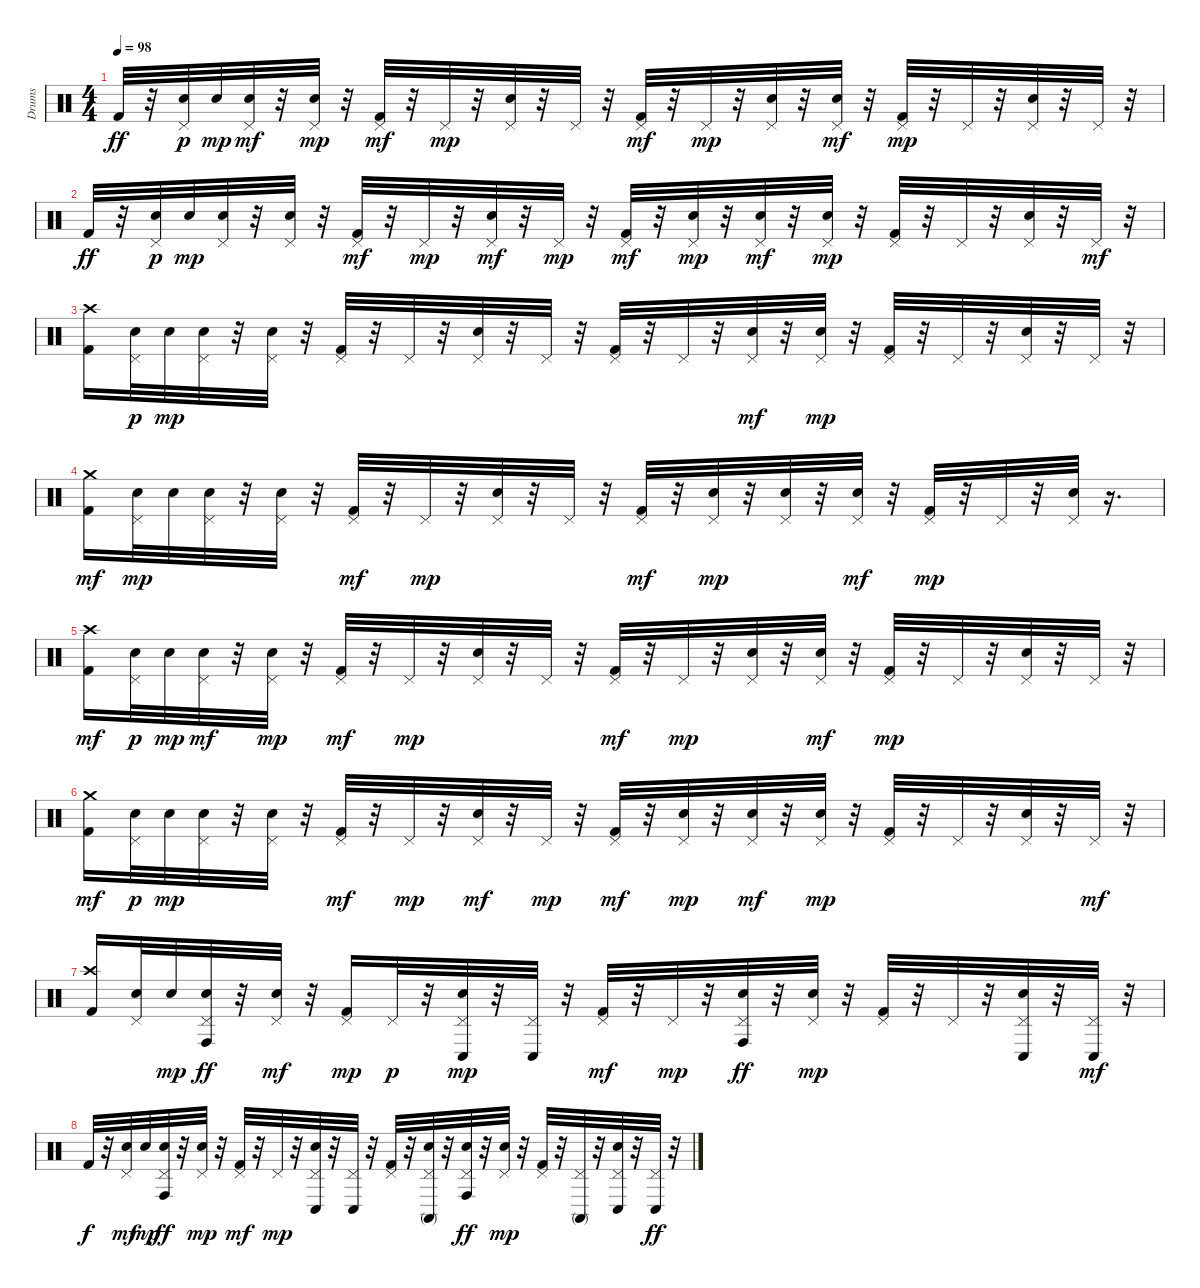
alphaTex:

\track ("Drums" "Drums") {instrument percussion}
\staff {score}
\articulation defaults
\ts (4 4)
\tempo 98
\clef neutral
\ks c "Kick (hit) 2".32{dy ff}
r.32 ("Electric Snare (hit)" "Pedal Hi-Hat (hit)").32{dy p} "Electric Snare (hit)".32{dy mp} ("Electric Snare (hit)" "Pedal Hi-Hat (hit)").32{dy mf} r.32 ("Electric Snare (hit)" "Pedal Hi-Hat (hit)").32{dy mp} r.32 ("Kick (hit) 2" "Pedal Hi-Hat (hit)").32{dy mf} r.32 "Pedal Hi-Hat (hit)".32{dy mp} r.32 ("Electric Snare (hit)" "Pedal Hi-Hat (hit)").32 r.32 "Pedal Hi-Hat (hit)".32 r.32 ("Kick (hit) 2" "Pedal Hi-Hat (hit)").32{dy mf} r.32 "Pedal Hi-Hat (hit)".32{dy mp} r.32 ("Electric Snare (hit)" "Pedal Hi-Hat (hit)").32 r.32 ("Electric Snare (hit)" "Pedal Hi-Hat (hit)").32{dy mf} r.32 ("Kick (hit) 2" "Pedal Hi-Hat (hit)").32{dy mp} r.32 "Pedal Hi-Hat (hit)".32 r.32 ("Electric Snare (hit)" "Pedal Hi-Hat (hit)").32 r.32 "Pedal Hi-Hat (hit)".32 r.32 |
"Kick (hit) 2".32{dy ff} r.32 ("Electric Snare (hit)" "Pedal Hi-Hat (hit)").32{dy p} "Electric Snare (hit)".32{dy mp} ("Electric Snare (hit)" "Pedal Hi-Hat (hit)").32 r.32 ("Electric Snare (hit)" "Pedal Hi-Hat (hit)").32 r.32 ("Kick (hit) 2" "Pedal Hi-Hat (hit)").32{dy mf} r.32 "Pedal Hi-Hat (hit)".32{dy mp} r.32 ("Electric Snare (hit)" "Pedal Hi-Hat (hit)").32{dy mf} r.32 "Pedal Hi-Hat (hit)".32{dy mp} r.32 ("Kick (hit) 2" "Pedal Hi-Hat (hit)").32{dy mf} r.32 ("Electric Snare (hit)" "Pedal Hi-Hat (hit)").32{dy mp} r.32 ("Electric Snare (hit)" "Pedal Hi-Hat (hit)").32{dy mf} r.32 ("Electric Snare (hit)" "Pedal Hi-Hat (hit)").32{dy mp} r.32 ("Kick (hit) 2" "Pedal Hi-Hat (hit)").32 r.32 "Pedal Hi-Hat (hit)".32 r.32 ("Electric Snare (hit)" "Pedal Hi-Hat (hit)").32 r.32 "Pedal Hi-Hat (hit)".32{dy mf} r.32 |
("Kick (hit) 2" "Crash high (hit)").16 ("Electric Snare (hit)" "Pedal Hi-Hat (hit)").32{dy p} "Electric Snare (hit)".32{dy mp} ("Electric Snare (hit)" "Pedal Hi-Hat (hit)").32 r.32 ("Electric Snare (hit)" "Pedal Hi-Hat (hit)").32 r.32 ("Kick (hit) 2" "Pedal Hi-Hat (hit)").32 r.32 "Pedal Hi-Hat (hit)".32 r.32 ("Electric Snare (hit)" "Pedal Hi-Hat (hit)").32 r.32 "Pedal Hi-Hat (hit)".32 r.32 ("Kick (hit) 2" "Pedal Hi-Hat (hit)").32 r.32 "Pedal Hi-Hat (hit)".32 r.32 ("Electric Snare (hit)" "Pedal Hi-Hat (hit)").32{dy mf} r.32 ("Electric Snare (hit)" "Pedal Hi-Hat (hit)").32{dy mp} r.32 ("Kick (hit) 2" "Pedal Hi-Hat (hit)").32 r.32 "Pedal Hi-Hat (hit)".32 r.32 ("Electric Snare (hit)" "Pedal Hi-Hat (hit)").32 r.32 "Pedal Hi-Hat (hit)".32 r.32 |
("Kick (hit) 2" "Crash medium (hit)").16{dy mf} ("Electric Snare (hit)" "Pedal Hi-Hat (hit)").32{dy mp} "Electric Snare (hit)".32 ("Electric Snare (hit)" "Pedal Hi-Hat (hit)").32 r.32 ("Electric Snare (hit)" "Pedal Hi-Hat (hit)").32 r.32 ("Kick (hit) 2" "Pedal Hi-Hat (hit)").32{dy mf} r.32 "Pedal Hi-Hat (hit)".32{dy mp} r.32 ("Electric Snare (hit)" "Pedal Hi-Hat (hit)").32 r.32 "Pedal Hi-Hat (hit)".32 r.32 ("Kick (hit) 2" "Pedal Hi-Hat (hit)").32{dy mf} r.32 ("Electric Snare (hit)" "Pedal Hi-Hat (hit)").32{dy mp} r.32 ("Electric Snare (hit)" "Pedal Hi-Hat (hit)").32 r.32 ("Electric Snare (hit)" "Pedal Hi-Hat (hit)").32{dy mf} r.32 ("Kick (hit) 2" "Pedal Hi-Hat (hit)").32{dy mp} r.32 "Pedal Hi-Hat (hit)".32 r.32 ("Electric Snare (hit)" "Pedal Hi-Hat (hit)").32 r.16{d} |
("Kick (hit) 2" "Crash high (hit)").16{dy mf} ("Electric Snare (hit)" "Pedal Hi-Hat (hit)").32{dy p} "Electric Snare (hit)".32{dy mp} ("Electric Snare (hit)" "Pedal Hi-Hat (hit)").32{dy mf} r.32 ("Electric Snare (hit)" "Pedal Hi-Hat (hit)").32{dy mp} r.32 ("Kick (hit) 2" "Pedal Hi-Hat (hit)").32{dy mf} r.32 "Pedal Hi-Hat (hit)".32{dy mp} r.32 ("Electric Snare (hit)" "Pedal Hi-Hat (hit)").32 r.32 "Pedal Hi-Hat (hit)".32 r.32 ("Kick (hit) 2" "Pedal Hi-Hat (hit)").32{dy mf} r.32 "Pedal Hi-Hat (hit)".32{dy mp} r.32 ("Electric Snare (hit)" "Pedal Hi-Hat (hit)").32 r.32 ("Electric Snare (hit)" "Pedal Hi-Hat (hit)").32{dy mf} r.32 ("Kick (hit) 2" "Pedal Hi-Hat (hit)").32{dy mp} r.32 "Pedal Hi-Hat (hit)".32 r.32 ("Electric Snare (hit)" "Pedal Hi-Hat (hit)").32 r.32 "Pedal Hi-Hat (hit)".32 r.32 |
("Kick (hit) 2" "Crash medium (hit)").16{dy mf} ("Electric Snare (hit)" "Pedal Hi-Hat (hit)").32{dy p} "Electric Snare (hit)".32{dy mp} ("Electric Snare (hit)" "Pedal Hi-Hat (hit)").32 r.32 ("Electric Snare (hit)" "Pedal Hi-Hat (hit)").32 r.32 ("Kick (hit) 2" "Pedal Hi-Hat (hit)").32{dy mf} r.32 "Pedal Hi-Hat (hit)".32{dy mp} r.32 ("Electric Snare (hit)" "Pedal Hi-Hat (hit)").32{dy mf} r.32 "Pedal Hi-Hat (hit)".32{dy mp} r.32 ("Kick (hit) 2" "Pedal Hi-Hat (hit)").32{dy mf} r.32 ("Electric Snare (hit)" "Pedal Hi-Hat (hit)").32{dy mp} r.32 ("Electric Snare (hit)" "Pedal Hi-Hat (hit)").32{dy mf} r.32 ("Electric Snare (hit)" "Pedal Hi-Hat (hit)").32{dy mp} r.32 ("Kick (hit) 2" "Pedal Hi-Hat (hit)").32 r.32 "Pedal Hi-Hat (hit)".32 r.32 ("Electric Snare (hit)" "Pedal Hi-Hat (hit)").32 r.32 "Pedal Hi-Hat (hit)".32{dy mf} r.32 |
("Kick (hit) 2" "Crash high (hit)").16 ("Electric Snare (hit)" "Pedal Hi-Hat (hit)").32 "Electric Snare (hit)".32{dy mp} ("Electric Snare (hit)" "Pedal Hi-Hat (hit)" "Conga high (hit)").32{dy ff} r.32 ("Electric Snare (hit)" "Pedal Hi-Hat (hit)").32{dy mf} r.32 ("Kick (hit) 2" "Pedal Hi-Hat (hit)").16{dy mp} "Pedal Hi-Hat (hit)".32{dy p} r.32 ("Electric Snare (hit)" "Pedal Hi-Hat (hit)" "Conga low (hit)").32{dy mp} r.32 ("Pedal Hi-Hat (hit)" "Conga low (hit)").32 r.32 ("Kick (hit) 2" "Pedal Hi-Hat (hit)").32{dy mf} r.32 "Pedal Hi-Hat (hit)".32{dy mp} r.32 ("Electric Snare (hit)" "Pedal Hi-Hat (hit)" "Conga high (hit)").32{dy ff} r.32 ("Electric Snare (hit)" "Pedal Hi-Hat (hit)").32{dy mp} r.32 ("Kick (hit) 2" "Pedal Hi-Hat (hit)").32 r.32 "Pedal Hi-Hat (hit)".32 r.32 ("Electric Snare (hit)" "Pedal Hi-Hat (hit)" "Conga low (hit)").32 r.32 ("Pedal Hi-Hat (hit)" "Conga low (hit)").32{dy mf} r.32 |
"Kick (hit) 2".32{dy f} r.32 ("Electric Snare (hit)" "Pedal Hi-Hat (hit)").32{dy mf} "Electric Snare (hit)".32{dy mp} ("Electric Snare (hit)" "Pedal Hi-Hat (hit)" "Conga high (hit)").32{dy ff} r.32 ("Electric Snare (hit)" "Pedal Hi-Hat (hit)").32{dy mp} r.32 ("Kick (hit) 2" "Pedal Hi-Hat (hit)").32{dy mf} r.32 "Pedal Hi-Hat (hit)".32{dy mp} r.32 ("Electric Snare (hit)" "Pedal Hi-Hat (hit)" "Conga low (hit)").32 r.32 ("Pedal Hi-Hat (hit)" "Conga low (hit)").32 r.32 ("Kick (hit) 2" "Pedal Hi-Hat (hit)").32 r.32 ("Electric Snare (hit)" "Pedal Hi-Hat (hit)" "Conga high (mute)").32{volume 12} r.32 ("Electric Snare (hit)" "Pedal Hi-Hat (hit)" "Conga high (hit)").32{dy ff} r.32 ("Electric Snare (hit)" "Pedal Hi-Hat (hit)").32{dy mp} r.32 ("Kick (hit) 2" "Pedal Hi-Hat (hit)").32 r.32 ("Pedal Hi-Hat (hit)" "Conga high (mute)").32 r.32 ("Electric Snare (hit)" "Pedal Hi-Hat (hit)" "Conga low (hit)").32 r.32 ("Pedal Hi-Hat (hit)" "Conga low (hit)").32{dy ff} r.32
